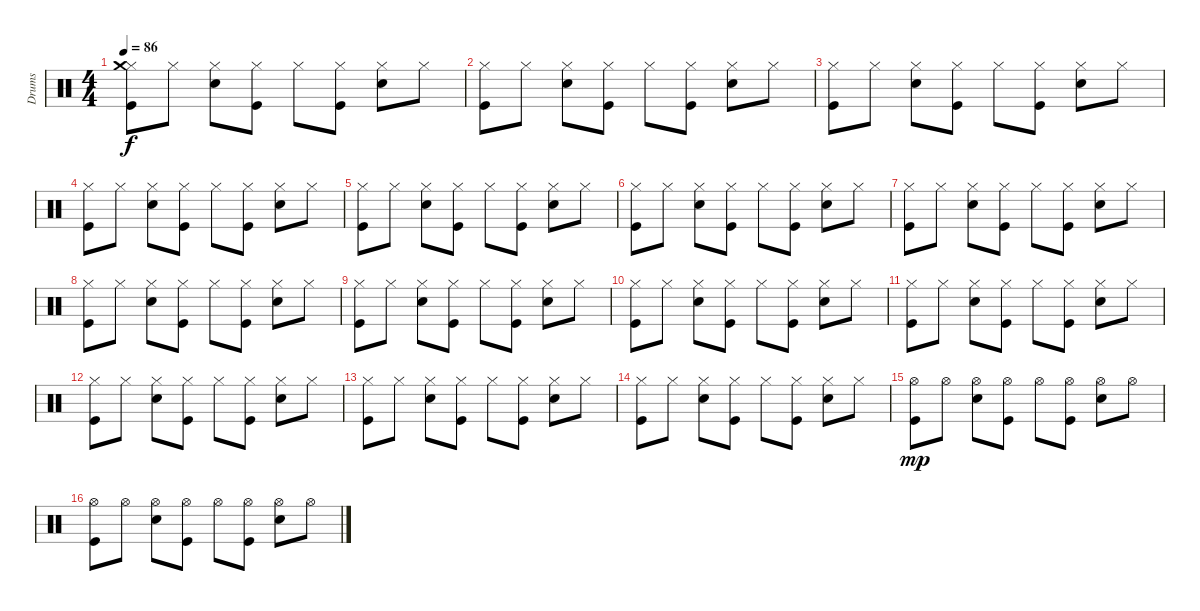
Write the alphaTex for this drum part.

\track ("Drums" "Drums") {instrument percussion}
\staff {score}
\articulation defaults
\ts (4 4)
\tempo 86
\clef neutral
\ks c
("Hi-Hat (closed)" "Kick (hit)" "Crash medium (hit)").8{dy f} "Hi-Hat (closed)".8 ("Hi-Hat (closed)" "Snare (hit) 2").8 ("Hi-Hat (closed)" "Kick (hit)").8 "Hi-Hat (closed)".8 ("Hi-Hat (closed)" "Kick (hit)").8 ("Hi-Hat (closed)" "Snare (hit) 2").8 "Hi-Hat (closed)".8 |
("Hi-Hat (closed)" "Kick (hit)").8 "Hi-Hat (closed)".8 ("Hi-Hat (closed)" "Snare (hit) 2").8 ("Hi-Hat (closed)" "Kick (hit)").8 "Hi-Hat (closed)".8 ("Hi-Hat (closed)" "Kick (hit)").8 ("Hi-Hat (closed)" "Snare (hit) 2").8 "Hi-Hat (closed)".8 |
("Hi-Hat (closed)" "Kick (hit)").8 "Hi-Hat (closed)".8 ("Hi-Hat (closed)" "Snare (hit) 2").8 ("Hi-Hat (closed)" "Kick (hit)").8 "Hi-Hat (closed)".8 ("Hi-Hat (closed)" "Kick (hit)").8 ("Hi-Hat (closed)" "Snare (hit) 2").8 "Hi-Hat (closed)".8 |
("Hi-Hat (closed)" "Kick (hit)").8 "Hi-Hat (closed)".8 ("Hi-Hat (closed)" "Snare (hit) 2").8 ("Hi-Hat (closed)" "Kick (hit)").8 "Hi-Hat (closed)".8 ("Hi-Hat (closed)" "Kick (hit)").8 ("Hi-Hat (closed)" "Snare (hit) 2").8 "Hi-Hat (closed)".8 |
("Hi-Hat (closed)" "Kick (hit)").8 "Hi-Hat (closed)".8 ("Hi-Hat (closed)" "Snare (hit) 2").8 ("Hi-Hat (closed)" "Kick (hit)").8 "Hi-Hat (closed)".8 ("Hi-Hat (closed)" "Kick (hit)").8 ("Hi-Hat (closed)" "Snare (hit) 2").8 "Hi-Hat (closed)".8 |
("Hi-Hat (closed)" "Kick (hit)").8 "Hi-Hat (closed)".8 ("Hi-Hat (closed)" "Snare (hit) 2").8 ("Hi-Hat (closed)" "Kick (hit)").8 "Hi-Hat (closed)".8 ("Hi-Hat (closed)" "Kick (hit)").8 ("Hi-Hat (closed)" "Snare (hit) 2").8 "Hi-Hat (closed)".8 |
("Hi-Hat (closed)" "Kick (hit)").8 "Hi-Hat (closed)".8 ("Hi-Hat (closed)" "Snare (hit) 2").8 ("Hi-Hat (closed)" "Kick (hit)").8 "Hi-Hat (closed)".8 ("Hi-Hat (closed)" "Kick (hit)").8 ("Hi-Hat (closed)" "Snare (hit) 2").8 "Hi-Hat (closed)".8 |
("Hi-Hat (closed)" "Kick (hit)").8 "Hi-Hat (closed)".8 ("Hi-Hat (closed)" "Snare (hit) 2").8 ("Hi-Hat (closed)" "Kick (hit)").8 "Hi-Hat (closed)".8 ("Hi-Hat (closed)" "Kick (hit)").8 ("Hi-Hat (closed)" "Snare (hit) 2").8 "Hi-Hat (closed)".8 |
("Hi-Hat (closed)" "Kick (hit)").8 "Hi-Hat (closed)".8 ("Hi-Hat (closed)" "Snare (hit) 2").8 ("Hi-Hat (closed)" "Kick (hit)").8 "Hi-Hat (closed)".8 ("Hi-Hat (closed)" "Kick (hit)").8 ("Hi-Hat (closed)" "Snare (hit) 2").8 "Hi-Hat (closed)".8 |
("Hi-Hat (closed)" "Kick (hit)").8 "Hi-Hat (closed)".8 ("Hi-Hat (closed)" "Snare (hit) 2").8 ("Hi-Hat (closed)" "Kick (hit)").8 "Hi-Hat (closed)".8 ("Hi-Hat (closed)" "Kick (hit)").8 ("Hi-Hat (closed)" "Snare (hit) 2").8 "Hi-Hat (closed)".8 |
("Hi-Hat (closed)" "Kick (hit)").8 "Hi-Hat (closed)".8 ("Hi-Hat (closed)" "Snare (hit) 2").8 ("Hi-Hat (closed)" "Kick (hit)").8 "Hi-Hat (closed)".8 ("Hi-Hat (closed)" "Kick (hit)").8 ("Hi-Hat (closed)" "Snare (hit) 2").8 "Hi-Hat (closed)".8 |
("Hi-Hat (closed)" "Kick (hit)").8 "Hi-Hat (closed)".8 ("Hi-Hat (closed)" "Snare (hit) 2").8 ("Hi-Hat (closed)" "Kick (hit)").8 "Hi-Hat (closed)".8 ("Hi-Hat (closed)" "Kick (hit)").8 ("Hi-Hat (closed)" "Snare (hit) 2").8 "Hi-Hat (closed)".8 |
("Hi-Hat (closed)" "Kick (hit)").8 "Hi-Hat (closed)".8 ("Hi-Hat (closed)" "Snare (hit) 2").8 ("Hi-Hat (closed)" "Kick (hit)").8 "Hi-Hat (closed)".8 ("Hi-Hat (closed)" "Kick (hit)").8 ("Hi-Hat (closed)" "Snare (hit) 2").8 "Hi-Hat (closed)".8 |
("Hi-Hat (closed)" "Kick (hit)").8 "Hi-Hat (closed)".8 ("Hi-Hat (closed)" "Snare (hit) 2").8 ("Hi-Hat (closed)" "Kick (hit)").8 "Hi-Hat (closed)".8 ("Hi-Hat (closed)" "Kick (hit)").8 ("Hi-Hat (closed)" "Snare (hit) 2").8 "Hi-Hat (closed)".8 |
("Hi-Hat (open)" "Kick (hit)").8{dy mp} "Hi-Hat (open)".8 ("Hi-Hat (open)" "Snare (hit) 2").8 ("Hi-Hat (open)" "Kick (hit)").8 "Hi-Hat (open)".8 ("Hi-Hat (open)" "Kick (hit)").8 ("Hi-Hat (open)" "Snare (hit) 2").8 "Hi-Hat (open)".8 |
("Hi-Hat (open)" "Kick (hit)").8 "Hi-Hat (open)".8 ("Hi-Hat (open)" "Snare (hit) 2").8 ("Hi-Hat (open)" "Kick (hit)").8 "Hi-Hat (open)".8 ("Hi-Hat (open)" "Kick (hit)").8 ("Hi-Hat (open)" "Snare (hit) 2").8 "Hi-Hat (open)".8
